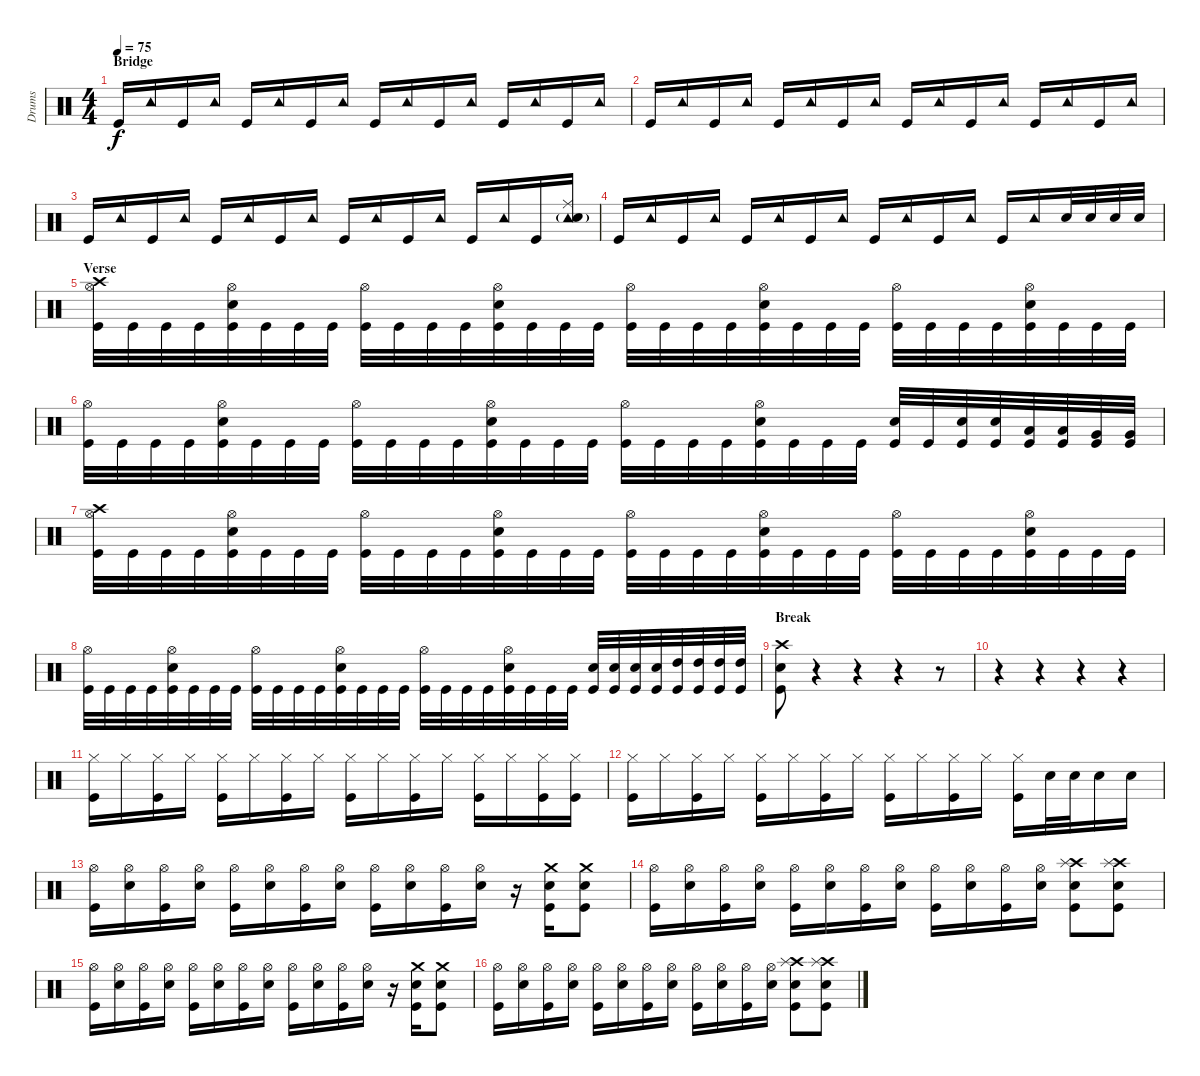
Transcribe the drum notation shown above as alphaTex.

\track ("Drums" "Drums") {instrument percussion}
\staff {score}
\articulation defaults
\ts (4 4)
\section ("" "Bridge")
\tempo 75
\clef neutral
\ks c "Kick (hit)".16{dy f} "Tambourine (hit)".16 "Kick (hit)".16 "Tambourine (hit)".16 "Kick (hit)".16 "Tambourine (hit)".16 "Kick (hit)".16 "Tambourine (hit)".16 "Kick (hit)".16 "Tambourine (hit)".16 "Kick (hit)".16 "Tambourine (hit)".16 "Kick (hit)".16 "Tambourine (hit)".16 "Kick (hit)".16 "Tambourine (hit)".16
|
"Kick (hit)".16 "Tambourine (hit)".16 "Kick (hit)".16 "Tambourine (hit)".16 "Kick (hit)".16 "Tambourine (hit)".16 "Kick (hit)".16 "Tambourine (hit)".16 "Kick (hit)".16 "Tambourine (hit)".16 "Kick (hit)".16 "Tambourine (hit)".16 "Kick (hit)".16 "Tambourine (hit)".16 "Kick (hit)".16 "Tambourine (hit)".16 |
"Kick (hit)".16 "Tambourine (hit)".16 "Kick (hit)".16 "Tambourine (hit)".16 "Kick (hit)".16 "Tambourine (hit)".16 "Kick (hit)".16 "Tambourine (hit)".16 "Kick (hit)".16 "Tambourine (hit)".16 "Kick (hit)".16 "Tambourine (hit)".16 "Kick (hit)".16 "Tambourine (hit)".16 "Kick (hit)".16 ("Tambourine (hit)" "Ride (middle)" "Snare (hit) 2"{g}).16 |
"Kick (hit)".16 "Tambourine (hit)".16 "Kick (hit)".16 "Tambourine (hit)".16 "Kick (hit)".16 "Tambourine (hit)".16 "Kick (hit)".16 "Tambourine (hit)".16 "Kick (hit)".16 "Tambourine (hit)".16 "Kick (hit)".16 "Tambourine (hit)".16 "Kick (hit)".16 "Tambourine (hit)".16 "Snare (hit) 2".32 "Snare (hit) 2".32 "Snare (hit) 2".32 "Snare (hit) 2".32 |
\section ("" "Verse")
("Crash high (hit)" "Hi-Hat (open)" "Kick (hit)").32 "Kick (hit)".32 "Kick (hit)".32 "Kick (hit)".32 ("Hi-Hat (open)" "Snare (hit) 2" "Kick (hit)").32 "Kick (hit)".32 "Kick (hit)".32 "Kick (hit)".32 ("Hi-Hat (open)" "Kick (hit)").32 "Kick (hit)".32 "Kick (hit)".32 "Kick (hit)".32 ("Hi-Hat (open)" "Snare (hit) 2" "Kick (hit)").32 "Kick (hit)".32 "Kick (hit)".32 "Kick (hit)".32 ("Hi-Hat (open)" "Kick (hit)").32 "Kick (hit)".32 "Kick (hit)".32 "Kick (hit)".32 ("Hi-Hat (open)" "Snare (hit) 2" "Kick (hit)").32 "Kick (hit)".32 "Kick (hit)".32 "Kick (hit)".32 ("Hi-Hat (open)" "Kick (hit)").32 "Kick (hit)".32 "Kick (hit)".32 "Kick (hit)".32 ("Hi-Hat (open)" "Snare (hit) 2" "Kick (hit)").32 "Kick (hit)".32 "Kick (hit)".32 "Kick (hit)".32 |
("Hi-Hat (open)" "Kick (hit)").32 "Kick (hit)".32 "Kick (hit)".32 "Kick (hit)".32 ("Hi-Hat (open)" "Snare (hit) 2" "Kick (hit)").32 "Kick (hit)".32 "Kick (hit)".32 "Kick (hit)".32 ("Hi-Hat (open)" "Kick (hit)").32 "Kick (hit)".32 "Kick (hit)".32 "Kick (hit)".32 ("Hi-Hat (open)" "Snare (hit) 2" "Kick (hit)").32 "Kick (hit)".32 "Kick (hit)".32 "Kick (hit)".32 ("Hi-Hat (open)" "Kick (hit)").32 "Kick (hit)".32 "Kick (hit)".32 "Kick (hit)".32 ("Hi-Hat (open)" "Snare (hit) 2" "Kick (hit)").32 "Kick (hit)".32 "Kick (hit)".32 "Kick (hit)".32 ("Snare (hit) 2" "Kick (hit)").32 "Kick (hit)".32 ("Snare (hit) 2" "Kick (hit)").32 ("Snare (hit) 2" "Kick (hit)").32 ("Low Tom (hit)" "Kick (hit)").32 ("Low Tom (hit)" "Kick (hit)").32 ("Very Low Tom (hit)" "Kick (hit)").32 ("Very Low Tom (hit)" "Kick (hit)").32 |
("Crash high (hit)" "Hi-Hat (open)" "Kick (hit)").32 "Kick (hit)".32 "Kick (hit)".32 "Kick (hit)".32 ("Hi-Hat (open)" "Snare (hit) 2" "Kick (hit)").32 "Kick (hit)".32 "Kick (hit)".32 "Kick (hit)".32 ("Hi-Hat (open)" "Kick (hit)").32 "Kick (hit)".32 "Kick (hit)".32 "Kick (hit)".32 ("Hi-Hat (open)" "Snare (hit) 2" "Kick (hit)").32 "Kick (hit)".32 "Kick (hit)".32 "Kick (hit)".32 ("Hi-Hat (open)" "Kick (hit)").32 "Kick (hit)".32 "Kick (hit)".32 "Kick (hit)".32 ("Hi-Hat (open)" "Snare (hit) 2" "Kick (hit)").32 "Kick (hit)".32 "Kick (hit)".32 "Kick (hit)".32 ("Hi-Hat (open)" "Kick (hit)").32 "Kick (hit)".32 "Kick (hit)".32 "Kick (hit)".32 ("Hi-Hat (open)" "Snare (hit) 2" "Kick (hit)").32 "Kick (hit)".32 "Kick (hit)".32 "Kick (hit)".32 |
("Hi-Hat (open)" "Kick (hit)").32 "Kick (hit)".32 "Kick (hit)".32 "Kick (hit)".32 ("Hi-Hat (open)" "Snare (hit) 2" "Kick (hit)").32 "Kick (hit)".32 "Kick (hit)".32 "Kick (hit)".32 ("Hi-Hat (open)" "Kick (hit)").32 "Kick (hit)".32 "Kick (hit)".32 "Kick (hit)".32 ("Hi-Hat (open)" "Snare (hit) 2" "Kick (hit)").32 "Kick (hit)".32 "Kick (hit)".32 "Kick (hit)".32 ("Hi-Hat (open)" "Kick (hit)").32 "Kick (hit)".32 "Kick (hit)".32 "Kick (hit)".32 ("Hi-Hat (open)" "Snare (hit) 2" "Kick (hit)").32 "Kick (hit)".32 "Kick (hit)".32 "Kick (hit)".32 ("Snare (hit) 2" "Kick (hit)").32 ("Snare (hit) 2" "Kick (hit)").32 ("Snare (hit) 2" "Kick (hit)").32 ("Snare (hit) 2" "Kick (hit)").32 ("High Tom (hit)" "Kick (hit)").32 ("High Tom (hit)" "Kick (hit)").32 ("High Tom (hit)" "Kick (hit)").32 ("High Tom (hit)" "Kick (hit)").32 |
\section ("" "Break")
("Crash high (hit)" "Snare (hit) 2" "Kick (hit)").8 r.4 r.4 r.4 r.8 |
r.4 r.4 r.4 r.4 |
("Hi-Hat (closed)" "Kick (hit)").16 "Hi-Hat (closed)".16 ("Hi-Hat (closed)" "Kick (hit)").16 "Hi-Hat (closed)".16 ("Hi-Hat (closed)" "Kick (hit)").16 "Hi-Hat (closed)".16 ("Hi-Hat (closed)" "Kick (hit)").16 "Hi-Hat (closed)".16 ("Hi-Hat (closed)" "Kick (hit)").16 "Hi-Hat (closed)".16 ("Hi-Hat (closed)" "Kick (hit)").16 "Hi-Hat (closed)".16 ("Hi-Hat (closed)" "Kick (hit)").16 "Hi-Hat (closed)".16 ("Hi-Hat (closed)" "Kick (hit)").16 ("Hi-Hat (closed)" "Kick (hit)").16 |
("Hi-Hat (closed)" "Kick (hit)").16 "Hi-Hat (closed)".16 ("Hi-Hat (closed)" "Kick (hit)").16 "Hi-Hat (closed)".16 ("Hi-Hat (closed)" "Kick (hit)").16 "Hi-Hat (closed)".16 ("Hi-Hat (closed)" "Kick (hit)").16 "Hi-Hat (closed)".16 ("Hi-Hat (closed)" "Kick (hit)").16 "Hi-Hat (closed)".16 ("Hi-Hat (closed)" "Kick (hit)").16 "Hi-Hat (closed)".16 ("Hi-Hat (closed)" "Kick (hit)").16 "Snare (hit) 2".32 "Snare (hit) 2".32 "Snare (hit) 2".16 "Snare (hit) 2".16 |
("Hi-Hat (open)" "Kick (hit)").16 ("Hi-Hat (open)" "Snare (hit) 2").16 ("Hi-Hat (open)" "Kick (hit)").16 ("Hi-Hat (open)" "Snare (hit) 2").16 ("Hi-Hat (open)" "Kick (hit)").16 ("Hi-Hat (open)" "Snare (hit) 2").16 ("Hi-Hat (open)" "Kick (hit)").16 ("Hi-Hat (open)" "Snare (hit) 2").16 ("Hi-Hat (open)" "Kick (hit)").16 ("Hi-Hat (open)" "Snare (hit) 2").16 ("Hi-Hat (open)" "Kick (hit)").16 ("Hi-Hat (open)" "Snare (hit) 2").16 r.16 ("Crash medium (hit)" "Snare (hit) 2" "Kick (hit)").16 ("Crash medium (hit)" "Snare (hit) 2" "Kick (hit)").8 |
("Hi-Hat (open)" "Kick (hit)").16 ("Hi-Hat (open)" "Snare (hit) 2").16 ("Hi-Hat (open)" "Kick (hit)").16 ("Hi-Hat (open)" "Snare (hit) 2").16 ("Hi-Hat (open)" "Kick (hit)").16 ("Hi-Hat (open)" "Snare (hit) 2").16 ("Hi-Hat (open)" "Kick (hit)").16 ("Hi-Hat (open)" "Snare (hit) 2").16 ("Hi-Hat (open)" "Kick (hit)").16 ("Hi-Hat (open)" "Snare (hit) 2").16 ("Hi-Hat (open)" "Kick (hit)").16 ("Hi-Hat (open)" "Snare (hit) 2").16 ("Crash high (hit)" "Splash (hit)" "Snare (hit) 2" "Kick (hit)").8 ("Crash high (hit)" "Splash (hit)" "Snare (hit) 2" "Kick (hit)").8 |
("Hi-Hat (open)" "Kick (hit)").16 ("Hi-Hat (open)" "Snare (hit) 2").16 ("Hi-Hat (open)" "Kick (hit)").16 ("Hi-Hat (open)" "Snare (hit) 2").16 ("Hi-Hat (open)" "Kick (hit)").16 ("Hi-Hat (open)" "Snare (hit) 2").16 ("Hi-Hat (open)" "Kick (hit)").16 ("Hi-Hat (open)" "Snare (hit) 2").16 ("Hi-Hat (open)" "Kick (hit)").16 ("Hi-Hat (open)" "Snare (hit) 2").16 ("Hi-Hat (open)" "Kick (hit)").16 ("Hi-Hat (open)" "Snare (hit) 2").16 r.16 ("Crash medium (hit)" "Snare (hit) 2" "Kick (hit)").16 ("Crash medium (hit)" "Snare (hit) 2" "Kick (hit)").8 |
("Hi-Hat (open)" "Kick (hit)").16 ("Hi-Hat (open)" "Snare (hit) 2").16 ("Hi-Hat (open)" "Kick (hit)").16 ("Hi-Hat (open)" "Snare (hit) 2").16 ("Hi-Hat (open)" "Kick (hit)").16 ("Hi-Hat (open)" "Snare (hit) 2").16 ("Hi-Hat (open)" "Kick (hit)").16 ("Hi-Hat (open)" "Snare (hit) 2").16 ("Hi-Hat (open)" "Kick (hit)").16 ("Hi-Hat (open)" "Snare (hit) 2").16 ("Hi-Hat (open)" "Kick (hit)").16 ("Hi-Hat (open)" "Snare (hit) 2").16 ("Crash high (hit)" "Splash (hit)" "Snare (hit) 2" "Kick (hit)").8 ("Crash high (hit)" "Splash (hit)" "Snare (hit) 2" "Kick (hit)").8
